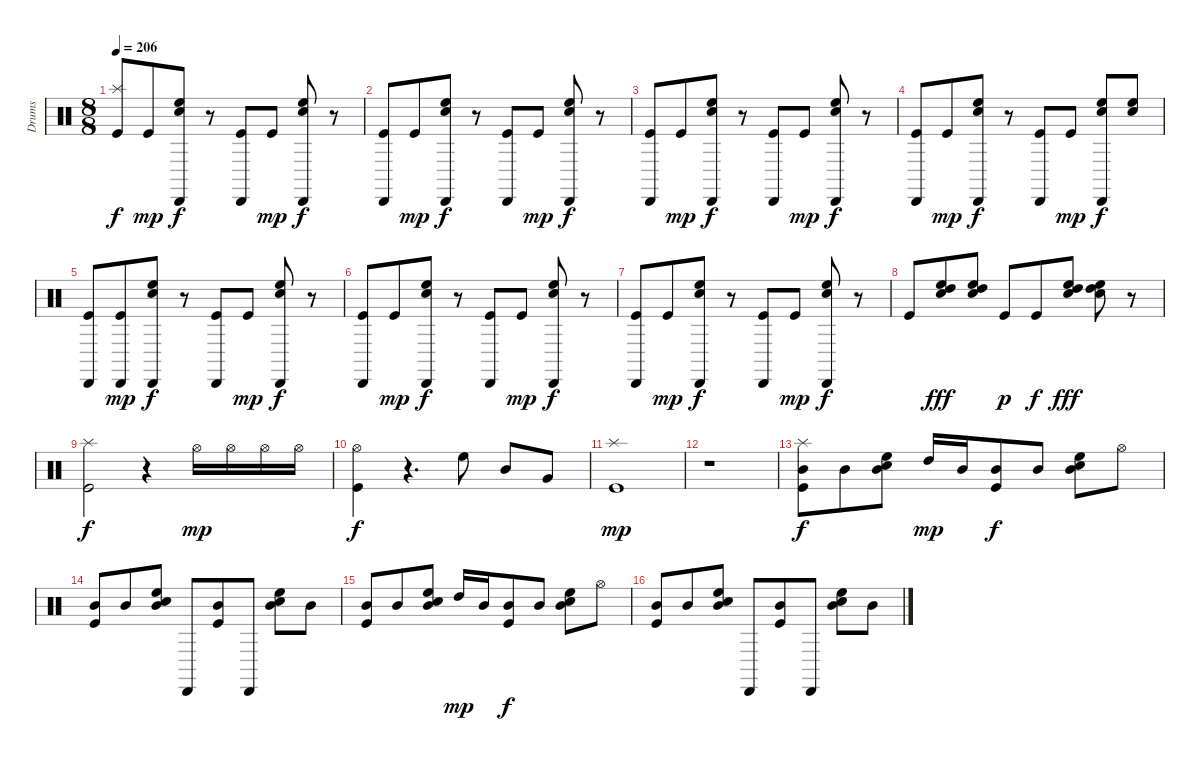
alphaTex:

\track ("Drums" "Drums") {instrument percussion}
\staff {score}
\articulation defaults
\ts (8 8)
\tempo 206
\clef neutral
\ks c
("Splash (hit)" "Kick (hit)").8{dy f} "Kick (hit)".8{dy mp} ("Cabasa (hit)" "High Floor Tom (hit)" "Electric Snare (hit)").8{dy f} r.8 ("Kick (hit)" "Cabasa (hit)").8 "Kick (hit)".8{dy mp} ("Cabasa (hit)" "High Floor Tom (hit)" "Electric Snare (hit)").8{dy f} r.8 |
("Kick (hit)" "Cabasa (hit)").8 "Kick (hit)".8{dy mp} ("Cabasa (hit)" "High Floor Tom (hit)" "Electric Snare (hit)").8{dy f} r.8 ("Kick (hit)" "Cabasa (hit)").8 "Kick (hit)".8{dy mp} ("Cabasa (hit)" "High Floor Tom (hit)" "Electric Snare (hit)").8{dy f} r.8 |
("Kick (hit)" "Cabasa (hit)").8 "Kick (hit)".8{dy mp} ("Cabasa (hit)" "High Floor Tom (hit)" "Electric Snare (hit)").8{dy f} r.8 ("Kick (hit)" "Cabasa (hit)").8 "Kick (hit)".8{dy mp} ("Cabasa (hit)" "High Floor Tom (hit)" "Electric Snare (hit)").8{dy f} r.8 |
("Kick (hit)" "Cabasa (hit)").8 "Kick (hit)".8{dy mp} ("Cabasa (hit)" "High Floor Tom (hit)" "Electric Snare (hit)").8{dy f} r.8 ("Kick (hit)" "Cabasa (hit)").8 "Kick (hit)".8{dy mp} ("Cabasa (hit)" "High Floor Tom (hit)" "Electric Snare (hit)").8{dy f} ("Electric Snare (hit)" "High Floor Tom (hit)").8 |
("Kick (hit)" "Cabasa (hit)").8 ("Cabasa (hit)" "Kick (hit)").8{dy mp} ("Cabasa (hit)" "High Floor Tom (hit)" "Electric Snare (hit)").8{dy f} r.8 ("Kick (hit)" "Cabasa (hit)").8 "Kick (hit)".8{dy mp} ("Cabasa (hit)" "High Floor Tom (hit)" "Electric Snare (hit)").8{dy f} r.8 |
("Kick (hit)" "Cabasa (hit)").8 "Kick (hit)".8{dy mp} ("Cabasa (hit)" "High Floor Tom (hit)" "Electric Snare (hit)").8{dy f} r.8 ("Kick (hit)" "Cabasa (hit)").8 "Kick (hit)".8{dy mp} ("Cabasa (hit)" "High Floor Tom (hit)" "Electric Snare (hit)").8{dy f} r.8 |
("Kick (hit)" "Cabasa (hit)").8 "Kick (hit)".8{dy mp} ("Cabasa (hit)" "High Floor Tom (hit)" "Electric Snare (hit)").8{dy f} r.8 ("Kick (hit)" "Cabasa (hit)").8 "Kick (hit)".8{dy mp} ("Cabasa (hit)" "High Floor Tom (hit)" "Electric Snare (hit)").8{dy f} r.8 |
"Kick (hit)".8 ("High Tom (hit)" "High Floor Tom (hit)" "Electric Snare (hit)").8{dy fff} ("High Tom (hit)" "High Floor Tom (hit)" "Electric Snare (hit)").8 "Kick (hit)".8{dy p} "Kick (hit)".8{dy f} ("Electric Snare (hit)" "High Tom (hit)" "High Floor Tom (hit)").8{dy fff} ("High Tom (hit)" "High Floor Tom (hit)" "Electric Snare (hit)").8 r.8 |
("Splash (hit)" "Kick (hit)").2{dy f} r.4 "Hi-Hat (open)".16{dy mp} "Hi-Hat (open)".16 "Hi-Hat (open)".16 "Hi-Hat (open)".16 |
("Kick (hit)" "Hi-Hat (open)").4{dy f} r.4{d} "High Floor Tom (hit)".8 "Mid Tom (hit)".8 "Very Low Tom (hit)".8 |
("Splash (hit)" "Kick (hit)").1{dy mp} |
r.1 |
("Splash (hit)" "Mid Tom (hit)" "Kick (hit)").8{dy f} "Mid Tom (hit)".8 ("Mid Tom (hit)" "High Floor Tom (hit)" "Electric Snare (hit)").8 "High Tom (hit)".16{dy mp} "Mid Tom (hit)".16 ("Mid Tom (hit)" "Kick (hit)").8{dy f} "Mid Tom (hit)".8 ("Mid Tom (hit)" "High Floor Tom (hit)" "Electric Snare (hit)").8 "Hi-Hat (open)".8 |
("Mid Tom (hit)" "Kick (hit)").8 "Mid Tom (hit)".8 ("Mid Tom (hit)" "High Floor Tom (hit)" "Electric Snare (hit)").8 "Cabasa (hit)".8 ("Mid Tom (hit)" "Kick (hit)").8 "Cabasa (hit)".8 ("Mid Tom (hit)" "High Floor Tom (hit)" "Electric Snare (hit)").8 "Mid Tom (hit)".8 |
("Mid Tom (hit)" "Kick (hit)").8 "Mid Tom (hit)".8 ("Mid Tom (hit)" "High Floor Tom (hit)" "Electric Snare (hit)").8 "High Tom (hit)".16{dy mp} "Mid Tom (hit)".16 ("Mid Tom (hit)" "Kick (hit)").8{dy f} "Mid Tom (hit)".8 ("Mid Tom (hit)" "High Floor Tom (hit)" "Electric Snare (hit)").8 "Hi-Hat (open)".8 |
("Mid Tom (hit)" "Kick (hit)").8 "Mid Tom (hit)".8 ("Mid Tom (hit)" "High Floor Tom (hit)" "Electric Snare (hit)").8 "Cabasa (hit)".8 ("Mid Tom (hit)" "Kick (hit)").8 "Cabasa (hit)".8 ("Mid Tom (hit)" "High Floor Tom (hit)" "Electric Snare (hit)").8 "Mid Tom (hit)".8
